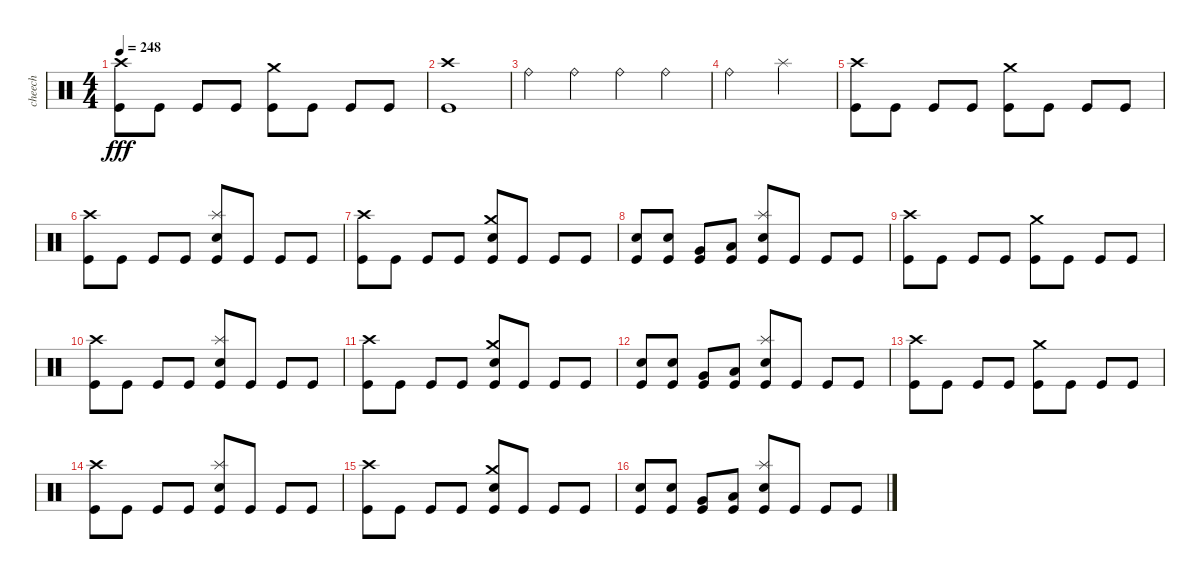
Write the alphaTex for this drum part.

\track ("cheech" "cheech") {instrument percussion}
\staff {score}
\articulation defaults
\ts (4 4)
\tempo 248
\clef neutral
\ks c
("Crash high (hit)" "Kick (hit)").8{dy fff} "Kick (hit)".8 "Kick (hit)".8 "Kick (hit)".8 ("Crash medium (hit)" "Kick (hit)").8 "Kick (hit)".8 "Kick (hit)".8 "Kick (hit)".8 |
("Crash high (hit)" "Kick (hit)").1 |
"Ride (bell)".4 "Ride (bell)".4 "Ride (bell)".4 "Ride (bell)".4 |
"Ride (bell)".2 "Splash (hit)".2 |
("Crash high (hit)" "Kick (hit)").8 "Kick (hit)".8 "Kick (hit)".8 "Kick (hit)".8 ("Crash medium (hit)" "Kick (hit)").8 "Kick (hit)".8 "Kick (hit)".8 "Kick (hit)".8 |
("Crash high (hit)" "Kick (hit)").8 "Kick (hit)".8 "Kick (hit)".8 "Kick (hit)".8 ("Splash (hit)" "Electric Snare (hit)" "Kick (hit)").8 "Kick (hit)".8 "Kick (hit)".8 "Kick (hit)".8 |
("Crash high (hit)" "Kick (hit)").8 "Kick (hit)".8 "Kick (hit)".8 "Kick (hit)".8 ("Crash medium (hit)" "Electric Snare (hit)" "Kick (hit)").8 "Kick (hit)".8 "Kick (hit)".8 "Kick (hit)".8 |
("Electric Snare (hit)" "Kick (hit)").8 ("Electric Snare (hit)" "Kick (hit)").8 ("Very Low Tom (hit)" "Kick (hit)").8 ("Low Floor Tom (hit)" "Kick (hit)").8 ("Splash (hit)" "Electric Snare (hit)" "Kick (hit)").8 "Kick (hit)".8 "Kick (hit)".8 "Kick (hit)".8 |
("Crash high (hit)" "Kick (hit)").8 "Kick (hit)".8 "Kick (hit)".8 "Kick (hit)".8 ("Crash medium (hit)" "Kick (hit)").8 "Kick (hit)".8 "Kick (hit)".8 "Kick (hit)".8 |
("Crash high (hit)" "Kick (hit)").8 "Kick (hit)".8 "Kick (hit)".8 "Kick (hit)".8 ("Splash (hit)" "Electric Snare (hit)" "Kick (hit)").8 "Kick (hit)".8 "Kick (hit)".8 "Kick (hit)".8 |
("Crash high (hit)" "Kick (hit)").8 "Kick (hit)".8 "Kick (hit)".8 "Kick (hit)".8 ("Crash medium (hit)" "Electric Snare (hit)" "Kick (hit)").8 "Kick (hit)".8 "Kick (hit)".8 "Kick (hit)".8 |
("Electric Snare (hit)" "Kick (hit)").8 ("Electric Snare (hit)" "Kick (hit)").8 ("Very Low Tom (hit)" "Kick (hit)").8 ("Low Floor Tom (hit)" "Kick (hit)").8 ("Splash (hit)" "Electric Snare (hit)" "Kick (hit)").8 "Kick (hit)".8 "Kick (hit)".8 "Kick (hit)".8 |
("Crash high (hit)" "Kick (hit)").8 "Kick (hit)".8 "Kick (hit)".8 "Kick (hit)".8 ("Crash medium (hit)" "Kick (hit)").8 "Kick (hit)".8 "Kick (hit)".8 "Kick (hit)".8 |
("Crash high (hit)" "Kick (hit)").8 "Kick (hit)".8 "Kick (hit)".8 "Kick (hit)".8 ("Splash (hit)" "Electric Snare (hit)" "Kick (hit)").8 "Kick (hit)".8 "Kick (hit)".8 "Kick (hit)".8 |
("Crash high (hit)" "Kick (hit)").8 "Kick (hit)".8 "Kick (hit)".8 "Kick (hit)".8 ("Crash medium (hit)" "Electric Snare (hit)" "Kick (hit)").8 "Kick (hit)".8 "Kick (hit)".8 "Kick (hit)".8 |
("Electric Snare (hit)" "Kick (hit)").8 ("Electric Snare (hit)" "Kick (hit)").8 ("Very Low Tom (hit)" "Kick (hit)").8 ("Low Floor Tom (hit)" "Kick (hit)").8 ("Splash (hit)" "Electric Snare (hit)" "Kick (hit)").8 "Kick (hit)".8 "Kick (hit)".8 "Kick (hit)".8
